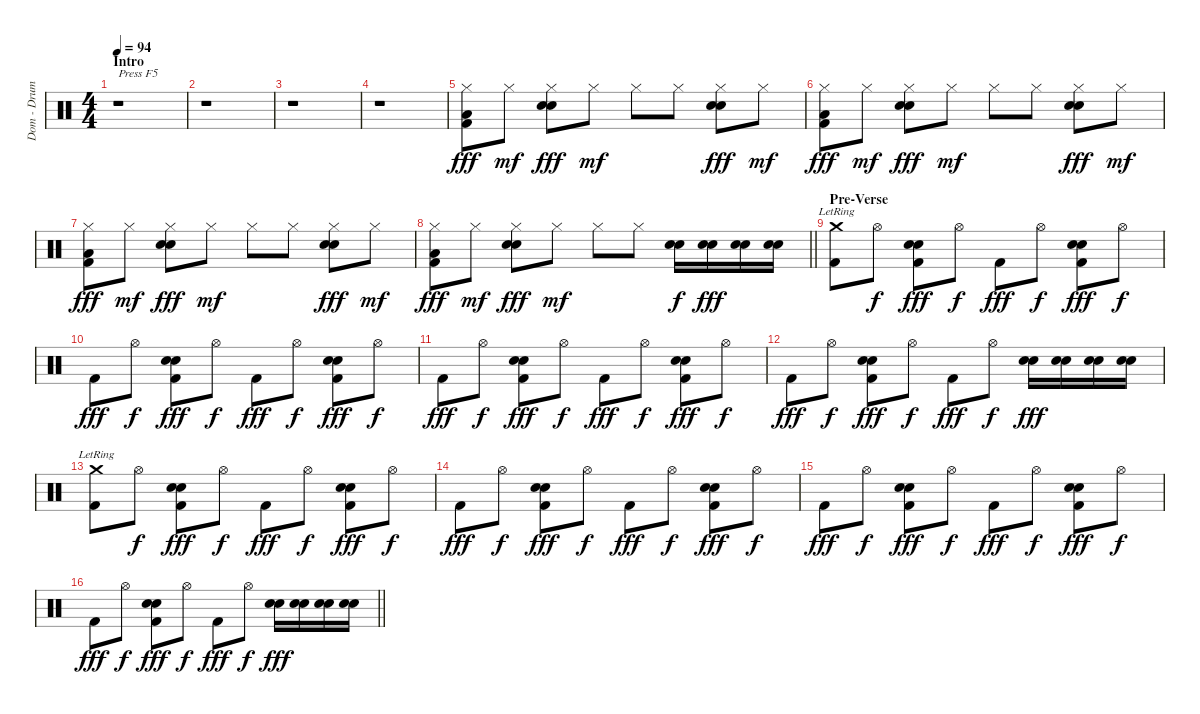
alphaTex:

\track ("Dom - Drums" "Dom - Drum") {instrument percussion}
\staff {score}
\articulation defaults
\ts (4 4)
\section ("" "Intro")
\tempo 94
\clef neutral
\ks c
r.1{txt "Press F5" dy fff} |
r.1 |
r.1 |
r.1 |
("Hi-Hat (closed)" "Low Floor Tom (hit)" "Kick (hit) 2").8 "Hi-Hat (closed)".8{dy mf} ("Hi-Hat (closed)" "Snare (hit) 2" "Electric Snare (hit)").8{dy fff} "Hi-Hat (closed)".8{dy mf} "Hi-Hat (closed)".8 "Hi-Hat (closed)".8 ("Hi-Hat (closed)" "Snare (hit) 2" "Electric Snare (hit)").8{dy fff} "Hi-Hat (closed)".8{dy mf} |
("Hi-Hat (closed)" "Low Floor Tom (hit)" "Kick (hit) 2").8{dy fff} "Hi-Hat (closed)".8{dy mf} ("Hi-Hat (closed)" "Snare (hit) 2" "Electric Snare (hit)").8{dy fff} "Hi-Hat (closed)".8{dy mf} "Hi-Hat (closed)".8 "Hi-Hat (closed)".8 ("Hi-Hat (closed)" "Snare (hit) 2" "Electric Snare (hit)").8{dy fff} "Hi-Hat (closed)".8{dy mf} |
("Hi-Hat (closed)" "Low Floor Tom (hit)" "Kick (hit) 2").8{dy fff} "Hi-Hat (closed)".8{dy mf} ("Hi-Hat (closed)" "Snare (hit) 2" "Electric Snare (hit)").8{dy fff} "Hi-Hat (closed)".8{dy mf} "Hi-Hat (closed)".8 "Hi-Hat (closed)".8 ("Hi-Hat (closed)" "Snare (hit) 2" "Electric Snare (hit)").8{dy fff} "Hi-Hat (closed)".8{dy mf} |
\barLineRight lightlight
("Hi-Hat (closed)" "Low Floor Tom (hit)" "Kick (hit) 2").8{dy fff} "Hi-Hat (closed)".8{dy mf} ("Hi-Hat (closed)" "Snare (hit) 2" "Electric Snare (hit)").8{dy fff} "Hi-Hat (closed)".8{dy mf} "Hi-Hat (closed)".8 "Hi-Hat (closed)".8 ("Snare (hit) 2" "Electric Snare (hit)").16{dy f} ("Snare (hit) 2" "Electric Snare (hit)").16{dy fff} ("Snare (hit) 2" "Electric Snare (hit)").16 ("Snare (hit) 2" "Electric Snare (hit)").16 |
\section ("" "Pre-Verse")
("Crash medium (hit)"{lr} "Kick (hit) 2").8 "Hi-Hat (open)".8{dy f} ("Snare (hit) 2" "Electric Snare (hit)" "Kick (hit) 2").8{dy fff} "Hi-Hat (open)".8{dy f} "Kick (hit) 2".8{dy fff} "Hi-Hat (open)".8{dy f} ("Snare (hit) 2" "Electric Snare (hit)" "Kick (hit) 2").8{dy fff} "Hi-Hat (open)".8{dy f} |
"Kick (hit) 2".8{dy fff} "Hi-Hat (open)".8{dy f} ("Snare (hit) 2" "Electric Snare (hit)" "Kick (hit) 2").8{dy fff} "Hi-Hat (open)".8{dy f} "Kick (hit) 2".8{dy fff} "Hi-Hat (open)".8{dy f} ("Snare (hit) 2" "Electric Snare (hit)" "Kick (hit) 2").8{dy fff} "Hi-Hat (open)".8{dy f} |
"Kick (hit) 2".8{dy fff} "Hi-Hat (open)".8{dy f} ("Snare (hit) 2" "Electric Snare (hit)" "Kick (hit) 2").8{dy fff} "Hi-Hat (open)".8{dy f} "Kick (hit) 2".8{dy fff} "Hi-Hat (open)".8{dy f} ("Snare (hit) 2" "Electric Snare (hit)" "Kick (hit) 2").8{dy fff} "Hi-Hat (open)".8{dy f} |
"Kick (hit) 2".8{dy fff} "Hi-Hat (open)".8{dy f} ("Snare (hit) 2" "Electric Snare (hit)" "Kick (hit) 2").8{dy fff} "Hi-Hat (open)".8{dy f} "Kick (hit) 2".8{dy fff} "Hi-Hat (open)".8{dy f} ("Snare (hit) 2" "Electric Snare (hit)").16{dy fff} ("Snare (hit) 2" "Electric Snare (hit)").16 ("Snare (hit) 2" "Electric Snare (hit)").16 ("Snare (hit) 2" "Electric Snare (hit)").16 |
("Crash medium (hit)"{lr} "Kick (hit) 2").8 "Hi-Hat (open)".8{dy f} ("Snare (hit) 2" "Electric Snare (hit)" "Kick (hit) 2").8{dy fff} "Hi-Hat (open)".8{dy f} "Kick (hit) 2".8{dy fff} "Hi-Hat (open)".8{dy f} ("Snare (hit) 2" "Electric Snare (hit)" "Kick (hit) 2").8{dy fff} "Hi-Hat (open)".8{dy f} |
"Kick (hit) 2".8{dy fff} "Hi-Hat (open)".8{dy f} ("Snare (hit) 2" "Electric Snare (hit)" "Kick (hit) 2").8{dy fff} "Hi-Hat (open)".8{dy f} "Kick (hit) 2".8{dy fff} "Hi-Hat (open)".8{dy f} ("Snare (hit) 2" "Electric Snare (hit)" "Kick (hit) 2").8{dy fff} "Hi-Hat (open)".8{dy f} |
"Kick (hit) 2".8{dy fff} "Hi-Hat (open)".8{dy f} ("Snare (hit) 2" "Electric Snare (hit)" "Kick (hit) 2").8{dy fff} "Hi-Hat (open)".8{dy f} "Kick (hit) 2".8{dy fff} "Hi-Hat (open)".8{dy f} ("Snare (hit) 2" "Electric Snare (hit)" "Kick (hit) 2").8{dy fff} "Hi-Hat (open)".8{dy f} |
\barLineRight lightlight "Kick (hit) 2".8{dy fff} "Hi-Hat (open)".8{dy f}
("Snare (hit) 2" "Electric Snare (hit)" "Kick (hit) 2").8{dy fff} "Hi-Hat (open)".8{dy f} "Kick (hit) 2".8{dy fff} "Hi-Hat (open)".8{dy f} ("Snare (hit) 2" "Electric Snare (hit)").16{dy fff} ("Snare (hit) 2" "Electric Snare (hit)").16 ("Snare (hit) 2" "Electric Snare (hit)").16 ("Snare (hit) 2" "Electric Snare (hit)").16
